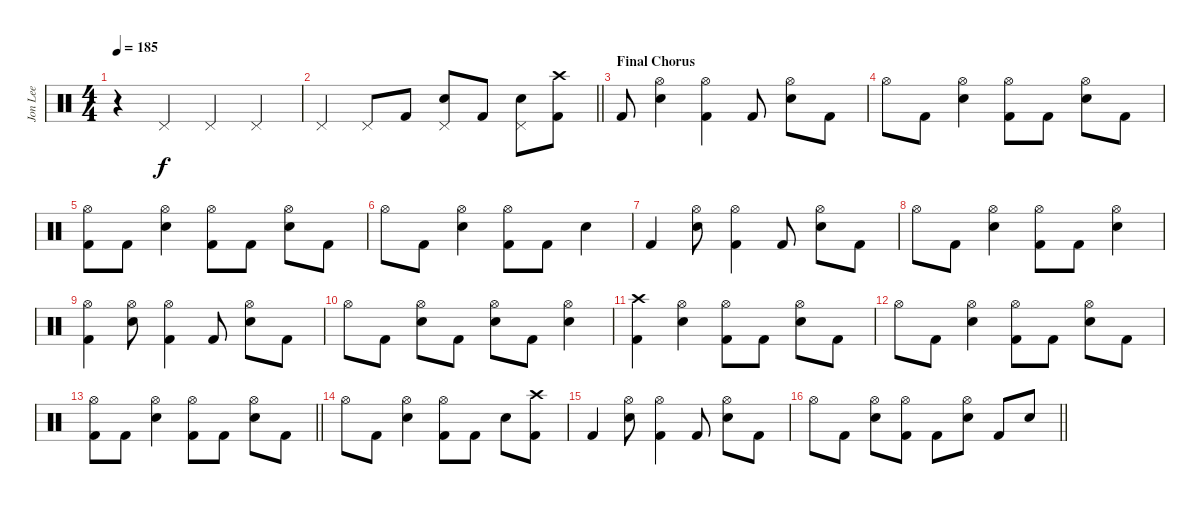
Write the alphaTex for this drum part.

\track ("Jon Lee" "Jon Lee") {instrument percussion bank 10}
\staff {score}
\articulation defaults
\ts (4 4)
\tempo 185
\clef neutral
\ks c
r.4{dy f} "Pedal Hi-Hat (hit)".4 "Pedal Hi-Hat (hit)".4 "Pedal Hi-Hat (hit)".4 |
\barLineRight lightlight "Pedal Hi-Hat (hit)".4 "Pedal Hi-Hat (hit)".8 "Kick (hit) 2".8
("Pedal Hi-Hat (hit)" "Snare (hit) 2").8 "Kick (hit) 2".8 ("Pedal Hi-Hat (hit)" "Snare (hit) 2").8 ("Kick (hit) 2" "Crash high (hit)").8 |
\section ("" "Final Chorus")
"Kick (hit) 2".8 ("Snare (hit) 2" "Hi-Hat (open)").4 ("Hi-Hat (open)" "Kick (hit) 2").4 "Kick (hit) 2".8 ("Snare (hit) 2" "Hi-Hat (open)").8 "Kick (hit) 2".8 |
"Hi-Hat (open)".8 "Kick (hit) 2".8 ("Snare (hit) 2" "Hi-Hat (open)").4 ("Kick (hit) 2" "Hi-Hat (open)").8 "Kick (hit) 2".8 ("Snare (hit) 2" "Hi-Hat (open)").8 "Kick (hit) 2".8 |
("Hi-Hat (open)" "Kick (hit) 2").8 "Kick (hit) 2".8 ("Snare (hit) 2" "Hi-Hat (open)").4 ("Kick (hit) 2" "Hi-Hat (open)").8 "Kick (hit) 2".8 ("Snare (hit) 2" "Hi-Hat (open)").8 "Kick (hit) 2".8 |
"Hi-Hat (open)".8 "Kick (hit) 2".8 ("Snare (hit) 2" "Hi-Hat (open)").4 ("Kick (hit) 2" "Hi-Hat (open)").8 "Kick (hit) 2".8 "Snare (hit) 2".4 |
"Kick (hit) 2".4 ("Snare (hit) 2" "Hi-Hat (open)").8 ("Kick (hit) 2" "Hi-Hat (open)").4 "Kick (hit) 2".8 ("Snare (hit) 2" "Hi-Hat (open)").8 "Kick (hit) 2".8 |
"Hi-Hat (open)".8 "Kick (hit) 2".8 ("Snare (hit) 2" "Hi-Hat (open)").4 ("Kick (hit) 2" "Hi-Hat (open)").8 "Kick (hit) 2".8 ("Snare (hit) 2" "Hi-Hat (open)").4 |
("Hi-Hat (open)" "Kick (hit) 2").4 ("Snare (hit) 2" "Hi-Hat (open)").8 ("Kick (hit) 2" "Hi-Hat (open)").4 "Kick (hit) 2".8 ("Snare (hit) 2" "Hi-Hat (open)").8 "Kick (hit) 2".8 |
"Hi-Hat (open)".8 "Kick (hit) 2".8 ("Snare (hit) 2" "Hi-Hat (open)").8 "Kick (hit) 2".8 ("Snare (hit) 2" "Hi-Hat (open)").8 "Kick (hit) 2".8 ("Snare (hit) 2" "Hi-Hat (open)").4 |
("Kick (hit) 2" "Crash high (hit)").4 ("Snare (hit) 2" "Hi-Hat (open)").4 ("Hi-Hat (open)" "Kick (hit) 2").8 "Kick (hit) 2".8 ("Snare (hit) 2" "Hi-Hat (open)").8 "Kick (hit) 2".8 |
"Hi-Hat (open)".8 "Kick (hit) 2".8 ("Snare (hit) 2" "Hi-Hat (open)").4 ("Kick (hit) 2" "Hi-Hat (open)").8 "Kick (hit) 2".8 ("Snare (hit) 2" "Hi-Hat (open)").8 "Kick (hit) 2".8 |
\barLineRight lightlight
("Hi-Hat (open)" "Kick (hit) 2").8 "Kick (hit) 2".8 ("Snare (hit) 2" "Hi-Hat (open)").4 ("Kick (hit) 2" "Hi-Hat (open)").8 "Kick (hit) 2".8 ("Snare (hit) 2" "Hi-Hat (open)").8 "Kick (hit) 2".8 |
"Hi-Hat (open)".8 "Kick (hit) 2".8 ("Snare (hit) 2" "Hi-Hat (open)").4 ("Kick (hit) 2" "Hi-Hat (open)").8 "Kick (hit) 2".8 "Snare (hit) 2".8 ("Kick (hit) 2" "Crash high (hit)").8 |
"Kick (hit) 2".4 ("Snare (hit) 2" "Hi-Hat (open)").8 ("Kick (hit) 2" "Hi-Hat (open)").4 "Kick (hit) 2".8 ("Snare (hit) 2" "Hi-Hat (open)").8 "Kick (hit) 2".8 |
\barLineRight lightlight "Hi-Hat (open)".8 "Kick (hit) 2".8
("Snare (hit) 2" "Hi-Hat (open)").8 ("Kick (hit) 2" "Hi-Hat (open)").8 "Kick (hit) 2".8 ("Snare (hit) 2" "Hi-Hat (open)").8 "Kick (hit) 2".8 "Snare (hit) 2".8
